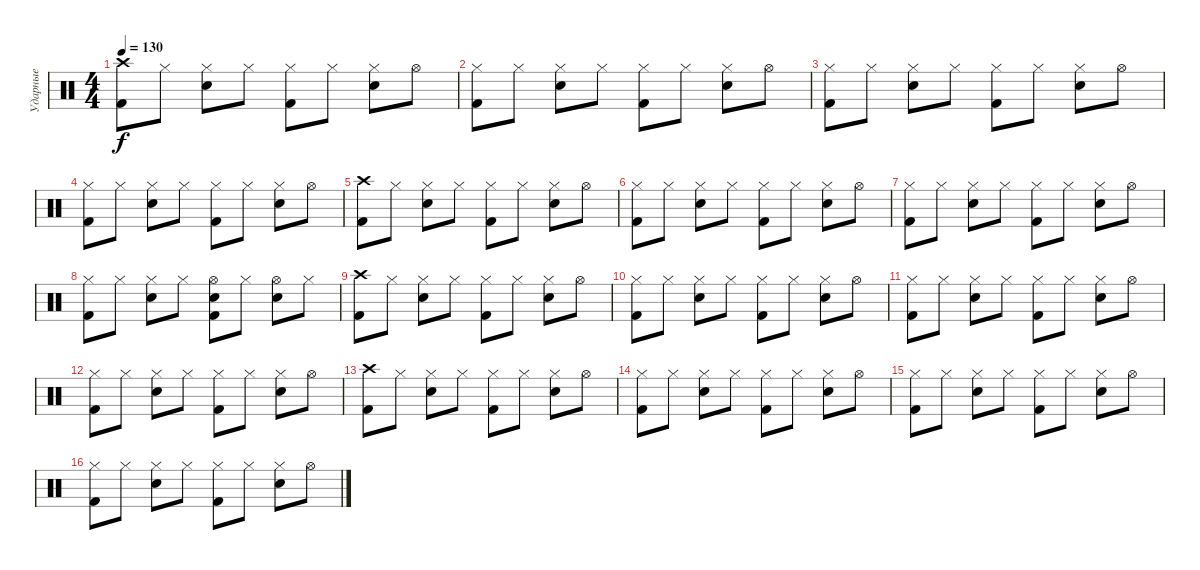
\track ("Ударные" "Ударные") {instrument percussion}
\staff {score}
\articulation defaults
\ts (4 4)
\tempo 130
\clef neutral
\ks c
("Crash high (hit)" "Kick (hit) 2").8{dy f} "Hi-Hat (closed)".8 ("Hi-Hat (closed)" "Electric Snare (hit)").8 "Hi-Hat (closed)".8 ("Hi-Hat (closed)" "Kick (hit) 2").8 "Hi-Hat (closed)".8 ("Hi-Hat (closed)" "Electric Snare (hit)").8 "Hi-Hat (open)".8 |
("Hi-Hat (closed)" "Kick (hit) 2").8 "Hi-Hat (closed)".8 ("Hi-Hat (closed)" "Electric Snare (hit)").8 "Hi-Hat (closed)".8 ("Hi-Hat (closed)" "Kick (hit) 2").8 "Hi-Hat (closed)".8 ("Hi-Hat (closed)" "Electric Snare (hit)").8 "Hi-Hat (open)".8 |
("Hi-Hat (closed)" "Kick (hit) 2").8 "Hi-Hat (closed)".8 ("Hi-Hat (closed)" "Electric Snare (hit)").8 "Hi-Hat (closed)".8 ("Hi-Hat (closed)" "Kick (hit) 2").8 "Hi-Hat (closed)".8 ("Hi-Hat (closed)" "Electric Snare (hit)").8 "Hi-Hat (open)".8 |
("Hi-Hat (closed)" "Kick (hit) 2").8 "Hi-Hat (closed)".8 ("Hi-Hat (closed)" "Electric Snare (hit)").8 "Hi-Hat (closed)".8 ("Hi-Hat (closed)" "Kick (hit) 2").8 "Hi-Hat (closed)".8 ("Hi-Hat (closed)" "Electric Snare (hit)").8 "Hi-Hat (open)".8 |
("Crash high (hit)" "Kick (hit) 2").8 "Hi-Hat (closed)".8 ("Hi-Hat (closed)" "Electric Snare (hit)").8 "Hi-Hat (closed)".8 ("Hi-Hat (closed)" "Kick (hit) 2").8 "Hi-Hat (closed)".8 ("Hi-Hat (closed)" "Electric Snare (hit)").8 "Hi-Hat (open)".8 |
("Hi-Hat (closed)" "Kick (hit) 2").8 "Hi-Hat (closed)".8 ("Hi-Hat (closed)" "Electric Snare (hit)").8 "Hi-Hat (closed)".8 ("Hi-Hat (closed)" "Kick (hit) 2").8 "Hi-Hat (closed)".8 ("Hi-Hat (closed)" "Electric Snare (hit)").8 "Hi-Hat (open)".8 |
("Hi-Hat (closed)" "Kick (hit) 2").8 "Hi-Hat (closed)".8 ("Hi-Hat (closed)" "Electric Snare (hit)").8 "Hi-Hat (closed)".8 ("Hi-Hat (closed)" "Kick (hit) 2").8 "Hi-Hat (closed)".8 ("Hi-Hat (closed)" "Electric Snare (hit)").8 "Hi-Hat (open)".8 |
("Hi-Hat (closed)" "Kick (hit) 2").8 "Hi-Hat (closed)".8 ("Hi-Hat (closed)" "Electric Snare (hit)").8 "Hi-Hat (closed)".8 ("Hi-Hat (open)" "Electric Snare (hit)" "Kick (hit) 2").8 "Hi-Hat (closed)".8 ("Hi-Hat (open)" "Electric Snare (hit)").8 "Hi-Hat (closed)".8 |
("Crash high (hit)" "Kick (hit) 2").8 "Hi-Hat (closed)".8 ("Hi-Hat (closed)" "Electric Snare (hit)").8 "Hi-Hat (closed)".8 ("Hi-Hat (closed)" "Kick (hit) 2").8 "Hi-Hat (closed)".8 ("Hi-Hat (closed)" "Electric Snare (hit)").8 "Hi-Hat (open)".8 |
("Hi-Hat (closed)" "Kick (hit) 2").8 "Hi-Hat (closed)".8 ("Hi-Hat (closed)" "Electric Snare (hit)").8 "Hi-Hat (closed)".8 ("Hi-Hat (closed)" "Kick (hit) 2").8 "Hi-Hat (closed)".8 ("Hi-Hat (closed)" "Electric Snare (hit)").8 "Hi-Hat (open)".8 |
("Hi-Hat (closed)" "Kick (hit) 2").8 "Hi-Hat (closed)".8 ("Hi-Hat (closed)" "Electric Snare (hit)").8 "Hi-Hat (closed)".8 ("Hi-Hat (closed)" "Kick (hit) 2").8 "Hi-Hat (closed)".8 ("Hi-Hat (closed)" "Electric Snare (hit)").8 "Hi-Hat (open)".8 |
("Hi-Hat (closed)" "Kick (hit) 2").8 "Hi-Hat (closed)".8 ("Hi-Hat (closed)" "Electric Snare (hit)").8 "Hi-Hat (closed)".8 ("Hi-Hat (closed)" "Kick (hit) 2").8 "Hi-Hat (closed)".8 ("Hi-Hat (closed)" "Electric Snare (hit)").8 "Hi-Hat (open)".8 |
("Crash high (hit)" "Kick (hit) 2").8 "Hi-Hat (closed)".8 ("Hi-Hat (closed)" "Electric Snare (hit)").8 "Hi-Hat (closed)".8 ("Hi-Hat (closed)" "Kick (hit) 2").8 "Hi-Hat (closed)".8 ("Hi-Hat (closed)" "Electric Snare (hit)").8 "Hi-Hat (open)".8 |
("Hi-Hat (closed)" "Kick (hit) 2").8 "Hi-Hat (closed)".8 ("Hi-Hat (closed)" "Electric Snare (hit)").8 "Hi-Hat (closed)".8 ("Hi-Hat (closed)" "Kick (hit) 2").8 "Hi-Hat (closed)".8 ("Hi-Hat (closed)" "Electric Snare (hit)").8 "Hi-Hat (open)".8 |
("Hi-Hat (closed)" "Kick (hit) 2").8 "Hi-Hat (closed)".8 ("Hi-Hat (closed)" "Electric Snare (hit)").8 "Hi-Hat (closed)".8 ("Hi-Hat (closed)" "Kick (hit) 2").8 "Hi-Hat (closed)".8 ("Hi-Hat (closed)" "Electric Snare (hit)").8 "Hi-Hat (open)".8 |
("Hi-Hat (closed)" "Kick (hit) 2").8 "Hi-Hat (closed)".8 ("Hi-Hat (closed)" "Electric Snare (hit)").8 "Hi-Hat (closed)".8 ("Hi-Hat (closed)" "Kick (hit) 2").8 "Hi-Hat (closed)".8 ("Hi-Hat (closed)" "Electric Snare (hit)").8 "Hi-Hat (open)".8
